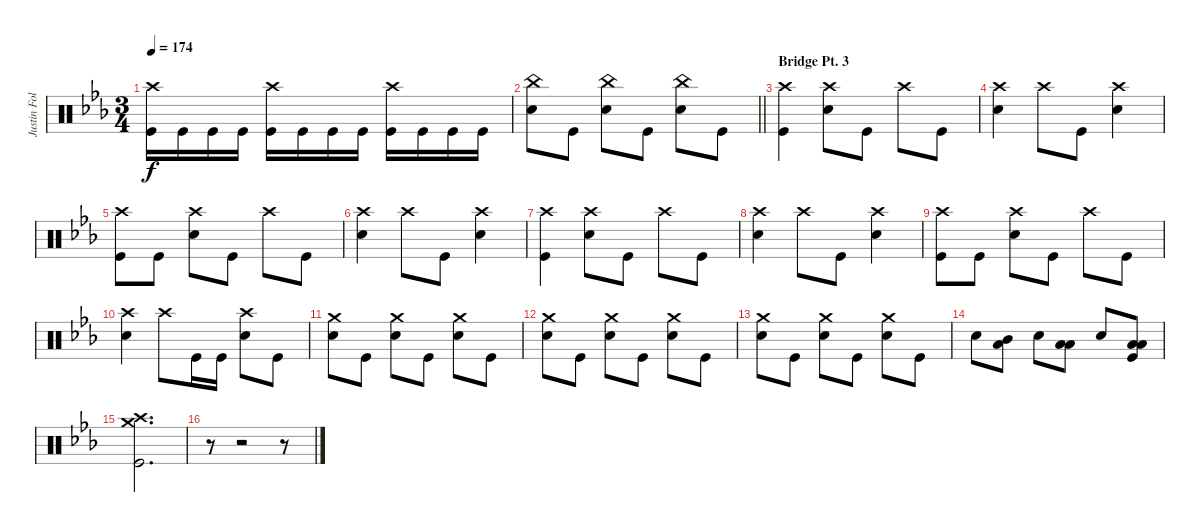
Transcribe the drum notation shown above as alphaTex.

\track ("Justin Foley" "Justin Fol") {instrument percussion}
\staff {score}
\articulation defaults
\ts (3 4)
\tempo 174
\clef neutral
\ks cminor
("Crash high (hit)" "Kick (hit)").16{dy f} "Kick (hit)".16 "Kick (hit)".16 "Kick (hit)".16 ("Crash high (hit)" "Kick (hit)").16 "Kick (hit)".16 "Kick (hit)".16 "Kick (hit)".16 ("Crash high (hit)" "Kick (hit)").16 "Kick (hit)".16 "Kick (hit)".16 "Kick (hit)".16 |
\barLineRight lightlight
("Snare (hit) 2" "China (hit)").8 "Kick (hit)".8 ("Snare (hit) 2" "China (hit)").8 "Kick (hit)".8 ("Snare (hit) 2" "China (hit)").8 "Kick (hit)".8 |
\section ("" "Bridge Pt. 3")
("Kick (hit)" "Crash high (hit)").4 ("Snare (hit) 2" "Crash high (hit)").8 "Kick (hit)".8 "Crash high (hit)".8 "Kick (hit)".8 |
("Snare (hit) 2" "Crash high (hit)").4 "Crash high (hit)".8 "Kick (hit)".8 ("Snare (hit) 2" "Crash high (hit)").4 |
("Kick (hit)" "Crash high (hit)").8 "Kick (hit)".8 ("Snare (hit) 2" "Crash high (hit)").8 "Kick (hit)".8 "Crash high (hit)".8 "Kick (hit)".8 |
("Snare (hit) 2" "Crash high (hit)").4 "Crash high (hit)".8 "Kick (hit)".8 ("Snare (hit) 2" "Crash high (hit)").4 |
("Kick (hit)" "Crash high (hit)").4 ("Snare (hit) 2" "Crash high (hit)").8 "Kick (hit)".8 "Crash high (hit)".8 "Kick (hit)".8 |
("Snare (hit) 2" "Crash high (hit)").4 "Crash high (hit)".8 "Kick (hit)".8 ("Snare (hit) 2" "Crash high (hit)").4 |
("Kick (hit)" "Crash high (hit)").8 "Kick (hit)".8 ("Snare (hit) 2" "Crash high (hit)").8 "Kick (hit)".8 "Crash high (hit)".8 "Kick (hit)".8 |
("Snare (hit) 2" "Crash high (hit)").4 "Crash high (hit)".8 "Kick (hit)".16 "Kick (hit)".16 ("Snare (hit) 2" "Crash high (hit)").8 "Kick (hit)".8 |
("Snare (hit) 2" "Crash medium (hit)").8 "Kick (hit)".8 ("Snare (hit) 2" "Crash medium (hit)").8 "Kick (hit)".8 ("Snare (hit) 2" "Crash medium (hit)").8 "Kick (hit)".8 |
("Snare (hit) 2" "Crash medium (hit)").8 "Kick (hit)".8 ("Snare (hit) 2" "Crash medium (hit)").8 "Kick (hit)".8 ("Snare (hit) 2" "Crash medium (hit)").8 "Kick (hit)".8 |
("Snare (hit) 2" "Crash medium (hit)").8 "Kick (hit)".8 ("Snare (hit) 2" "Crash medium (hit)").8 "Kick (hit)".8 ("Snare (hit) 2" "Crash medium (hit)").8 "Kick (hit)".8 |
"Snare (hit) 2".8 ("Low Tom (hit)" "Mid Tom (hit)").8 "Snare (hit) 2".8 ("Low Floor Tom (hit)" "Low Tom (hit)").8 "Snare (hit) 2".8 ("Kick (hit)" "Low Floor Tom (hit)" "Low Tom (hit)").8 |
("Crash high (hit)" "Kick (hit)" "Crash medium (hit)").2{d} |
r.8 r.2 r.8
